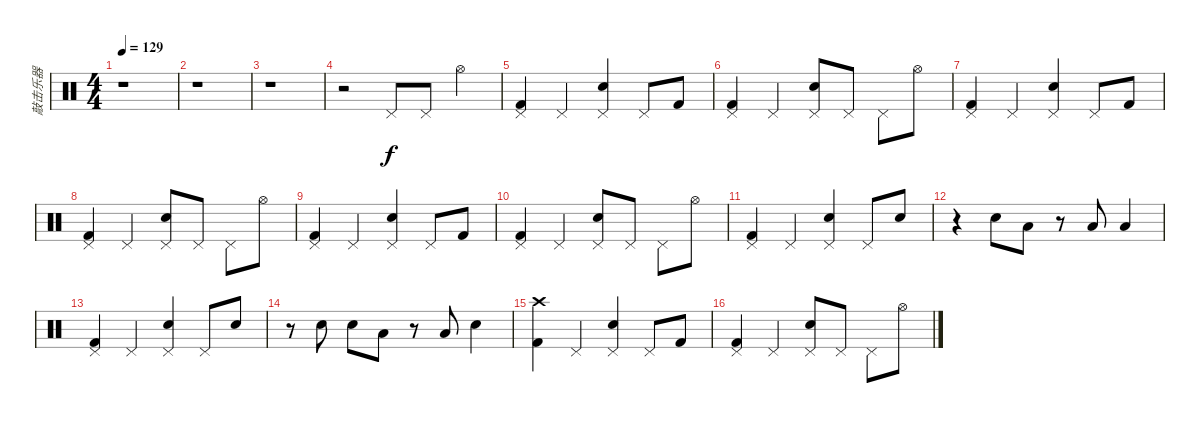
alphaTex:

\track ("敲击乐器" "敲击乐器") {instrument percussion}
\staff {score}
\articulation defaults
\ts (4 4)
\tempo 129
\clef neutral
\ks c
r.1{dy f} |
r.1 |
r.1 |
r.2 "Pedal Hi-Hat (hit)".8 "Pedal Hi-Hat (hit)".8 "Hi-Hat (open)".4 |
("Pedal Hi-Hat (hit)" "Kick (hit) 2").4 "Pedal Hi-Hat (hit)".4 ("Pedal Hi-Hat (hit)" "Snare (hit) 2").4 "Pedal Hi-Hat (hit)".8 "Kick (hit) 2".8 |
("Pedal Hi-Hat (hit)" "Kick (hit) 2").4 "Pedal Hi-Hat (hit)".4 ("Pedal Hi-Hat (hit)" "Snare (hit) 2").8 "Pedal Hi-Hat (hit)".8 "Pedal Hi-Hat (hit)".8 "Hi-Hat (open)".8 |
("Pedal Hi-Hat (hit)" "Kick (hit) 2").4 "Pedal Hi-Hat (hit)".4 ("Pedal Hi-Hat (hit)" "Snare (hit) 2").4 "Pedal Hi-Hat (hit)".8 "Kick (hit) 2".8 |
("Pedal Hi-Hat (hit)" "Kick (hit) 2").4 "Pedal Hi-Hat (hit)".4 ("Pedal Hi-Hat (hit)" "Snare (hit) 2").8 "Pedal Hi-Hat (hit)".8 "Pedal Hi-Hat (hit)".8 "Hi-Hat (open)".8 |
("Pedal Hi-Hat (hit)" "Kick (hit) 2").4 "Pedal Hi-Hat (hit)".4 ("Pedal Hi-Hat (hit)" "Snare (hit) 2").4 "Pedal Hi-Hat (hit)".8 "Kick (hit) 2".8 |
("Pedal Hi-Hat (hit)" "Kick (hit) 2").4 "Pedal Hi-Hat (hit)".4 ("Pedal Hi-Hat (hit)" "Snare (hit) 2").8 "Pedal Hi-Hat (hit)".8 "Pedal Hi-Hat (hit)".8 "Hi-Hat (open)".8 |
("Pedal Hi-Hat (hit)" "Kick (hit) 2").4 "Pedal Hi-Hat (hit)".4 ("Pedal Hi-Hat (hit)" "Snare (hit) 2").4 "Pedal Hi-Hat (hit)".8 "Snare (hit) 2".8 |
r.4 "Snare (hit) 2".8 "Low Tom (hit)".8 r.8 "Low Tom (hit)".8 "Low Tom (hit)".4 |
("Pedal Hi-Hat (hit)" "Kick (hit) 2").4 "Pedal Hi-Hat (hit)".4 ("Pedal Hi-Hat (hit)" "Snare (hit) 2").4 "Pedal Hi-Hat (hit)".8 "Snare (hit) 2".8 |
r.8 "Snare (hit) 2".8 "Snare (hit) 2".8 "Low Tom (hit)".8 r.8 "Low Tom (hit)".8 "Snare (hit) 2".4 |
("Crash high (hit)" "Kick (hit) 2").4 "Pedal Hi-Hat (hit)".4 ("Pedal Hi-Hat (hit)" "Snare (hit) 2").4 "Pedal Hi-Hat (hit)".8 "Kick (hit) 2".8 |
("Pedal Hi-Hat (hit)" "Kick (hit) 2").4 "Pedal Hi-Hat (hit)".4 ("Pedal Hi-Hat (hit)" "Snare (hit) 2").8 "Pedal Hi-Hat (hit)".8 "Pedal Hi-Hat (hit)".8 "Hi-Hat (open)".8
